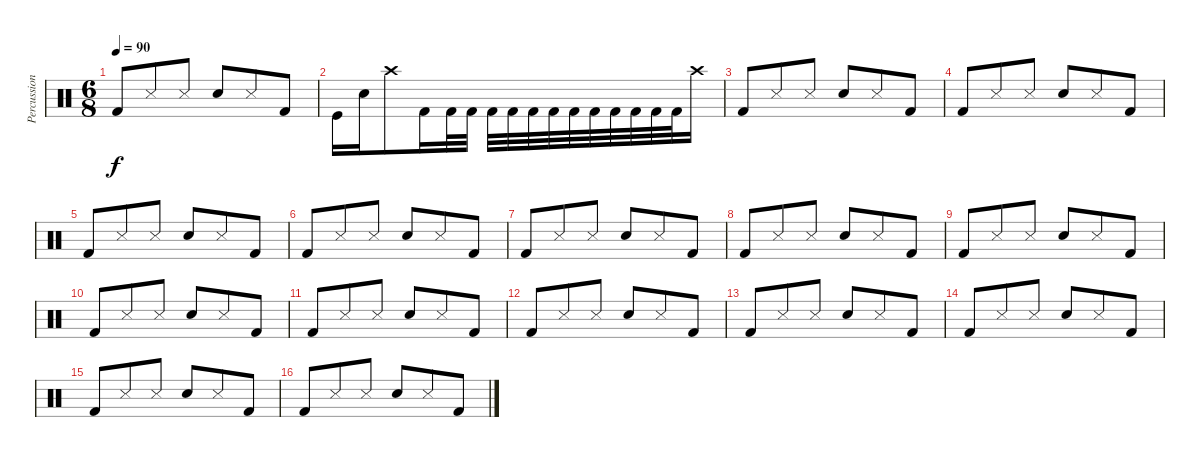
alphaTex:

\track ("Percussion" "Percussion") {instrument percussion}
\staff {score}
\articulation defaults
\ts (6 8)
\tempo 90
\clef neutral
\ks c "Kick (hit) 2".8{dy f} "Snare (side stick) 3".8 "Snare (side stick) 3".8 "Electric Snare (hit)".8 "Snare (side stick) 3".8 "Kick (hit) 2".8
|
"Kick (hit)".16 "Electric Snare (hit)".16 "Crash high (hit)".8 "Kick (hit) 2".16 "Kick (hit) 2".32 "Kick (hit) 2".32 "Kick (hit) 2".32 "Kick (hit) 2".32 "Kick (hit) 2".32 "Kick (hit) 2".32 "Kick (hit) 2".32 "Kick (hit) 2".32 "Kick (hit) 2".32 "Kick (hit) 2".32 "Kick (hit) 2".32 "Kick (hit) 2".32 "Crash high (hit)".16 |
"Kick (hit) 2".8 "Snare (side stick) 3".8 "Snare (side stick) 3".8 "Electric Snare (hit)".8 "Snare (side stick) 3".8 "Kick (hit) 2".8 |
"Kick (hit) 2".8 "Snare (side stick) 3".8 "Snare (side stick) 3".8 "Electric Snare (hit)".8 "Snare (side stick) 3".8 "Kick (hit) 2".8 |
"Kick (hit) 2".8 "Snare (side stick) 3".8 "Snare (side stick) 3".8 "Electric Snare (hit)".8 "Snare (side stick) 3".8 "Kick (hit) 2".8 |
"Kick (hit) 2".8 "Snare (side stick) 3".8 "Snare (side stick) 3".8 "Electric Snare (hit)".8 "Snare (side stick) 3".8 "Kick (hit) 2".8 |
"Kick (hit) 2".8 "Snare (side stick) 3".8 "Snare (side stick) 3".8 "Electric Snare (hit)".8 "Snare (side stick) 3".8 "Kick (hit) 2".8 |
"Kick (hit) 2".8 "Snare (side stick) 3".8 "Snare (side stick) 3".8 "Electric Snare (hit)".8 "Snare (side stick) 3".8 "Kick (hit) 2".8 |
"Kick (hit) 2".8 "Snare (side stick) 3".8 "Snare (side stick) 3".8 "Electric Snare (hit)".8 "Snare (side stick) 3".8 "Kick (hit) 2".8 |
"Kick (hit) 2".8 "Snare (side stick) 3".8 "Snare (side stick) 3".8 "Electric Snare (hit)".8 "Snare (side stick) 3".8 "Kick (hit) 2".8 |
"Kick (hit) 2".8 "Snare (side stick) 3".8 "Snare (side stick) 3".8 "Electric Snare (hit)".8 "Snare (side stick) 3".8 "Kick (hit) 2".8 |
"Kick (hit) 2".8 "Snare (side stick) 3".8 "Snare (side stick) 3".8 "Electric Snare (hit)".8 "Snare (side stick) 3".8 "Kick (hit) 2".8 |
"Kick (hit) 2".8 "Snare (side stick) 3".8 "Snare (side stick) 3".8 "Electric Snare (hit)".8 "Snare (side stick) 3".8 "Kick (hit) 2".8 |
"Kick (hit) 2".8 "Snare (side stick) 3".8 "Snare (side stick) 3".8 "Electric Snare (hit)".8 "Snare (side stick) 3".8 "Kick (hit) 2".8 |
"Kick (hit) 2".8 "Snare (side stick) 3".8 "Snare (side stick) 3".8 "Electric Snare (hit)".8 "Snare (side stick) 3".8 "Kick (hit) 2".8 |
"Kick (hit) 2".8 "Snare (side stick) 3".8 "Snare (side stick) 3".8 "Electric Snare (hit)".8 "Snare (side stick) 3".8 "Kick (hit) 2".8
